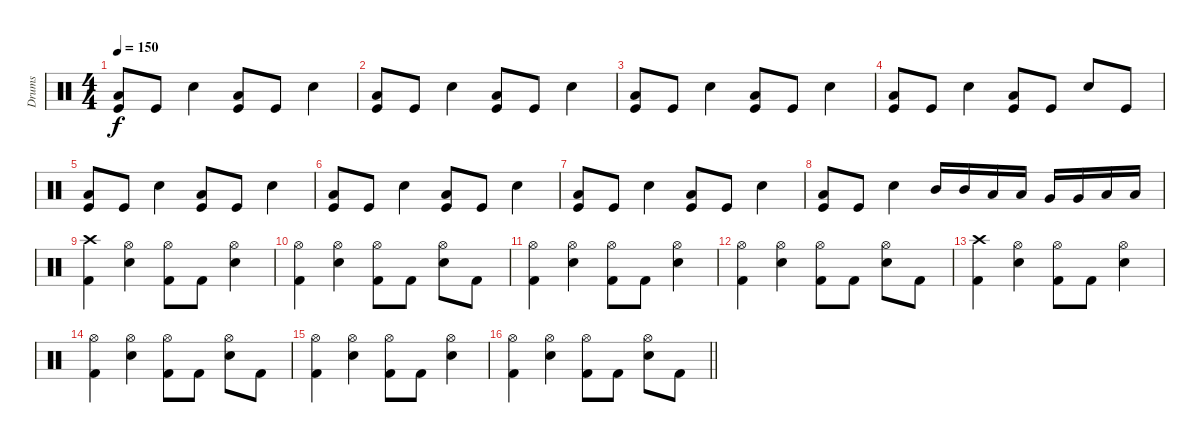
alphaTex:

\track ("Drums" "Drums") {instrument percussion}
\staff {score}
\articulation defaults
\ts (4 4)
\tempo 150
\clef neutral
\ks c
("Low Floor Tom (hit)" "Kick (hit)").8{dy f} "Kick (hit)".8 "Electric Snare (hit)".4 ("Low Floor Tom (hit)" "Kick (hit)").8 "Kick (hit)".8 "Electric Snare (hit)".4 |
("Low Floor Tom (hit)" "Kick (hit)").8 "Kick (hit)".8 "Electric Snare (hit)".4 ("Low Floor Tom (hit)" "Kick (hit)").8 "Kick (hit)".8 "Electric Snare (hit)".4 |
("Low Floor Tom (hit)" "Kick (hit)").8 "Kick (hit)".8 "Electric Snare (hit)".4 ("Low Floor Tom (hit)" "Kick (hit)").8 "Kick (hit)".8 "Electric Snare (hit)".4 |
("Low Floor Tom (hit)" "Kick (hit)").8 "Kick (hit)".8 "Electric Snare (hit)".4 ("Low Floor Tom (hit)" "Kick (hit)").8 "Kick (hit)".8 "Electric Snare (hit)".8 "Kick (hit)".8 |
("Low Floor Tom (hit)" "Kick (hit)").8 "Kick (hit)".8 "Electric Snare (hit)".4 ("Low Floor Tom (hit)" "Kick (hit)").8 "Kick (hit)".8 "Electric Snare (hit)".4 |
("Low Floor Tom (hit)" "Kick (hit)").8 "Kick (hit)".8 "Electric Snare (hit)".4 ("Low Floor Tom (hit)" "Kick (hit)").8 "Kick (hit)".8 "Electric Snare (hit)".4 |
("Low Floor Tom (hit)" "Kick (hit)").8 "Kick (hit)".8 "Electric Snare (hit)".4 ("Low Floor Tom (hit)" "Kick (hit)").8 "Kick (hit)".8 "Electric Snare (hit)".4 |
("Low Floor Tom (hit)" "Kick (hit)").8 "Kick (hit)".8 "Electric Snare (hit)".4 "Mid Tom (hit)".16 "Mid Tom (hit)".16 "Low Tom (hit)".16 "Low Tom (hit)".16 "Very Low Tom (hit)".16 "Very Low Tom (hit)".16 "Low Floor Tom (hit)".16 "Low Floor Tom (hit)".16 |
("Crash high (hit)" "Kick (hit) 2").4 ("Hi-Hat (open)" "Electric Snare (hit)").4 ("Hi-Hat (open)" "Kick (hit) 2").8 "Kick (hit) 2".8 ("Hi-Hat (open)" "Electric Snare (hit)").4 |
("Hi-Hat (open)" "Kick (hit) 2").4 ("Hi-Hat (open)" "Electric Snare (hit)").4 ("Hi-Hat (open)" "Kick (hit) 2").8 "Kick (hit) 2".8 ("Hi-Hat (open)" "Electric Snare (hit)").8 "Kick (hit) 2".8 |
("Hi-Hat (open)" "Kick (hit) 2").4 ("Hi-Hat (open)" "Electric Snare (hit)").4 ("Hi-Hat (open)" "Kick (hit) 2").8 "Kick (hit) 2".8 ("Hi-Hat (open)" "Electric Snare (hit)").4 |
("Hi-Hat (open)" "Kick (hit) 2").4 ("Hi-Hat (open)" "Electric Snare (hit)").4 ("Hi-Hat (open)" "Kick (hit) 2").8 "Kick (hit) 2".8 ("Hi-Hat (open)" "Electric Snare (hit)").8 "Kick (hit) 2".8 |
("Crash high (hit)" "Kick (hit) 2").4 ("Hi-Hat (open)" "Electric Snare (hit)").4 ("Hi-Hat (open)" "Kick (hit) 2").8 "Kick (hit) 2".8 ("Hi-Hat (open)" "Electric Snare (hit)").4 |
("Hi-Hat (open)" "Kick (hit) 2").4 ("Hi-Hat (open)" "Electric Snare (hit)").4 ("Hi-Hat (open)" "Kick (hit) 2").8 "Kick (hit) 2".8 ("Hi-Hat (open)" "Electric Snare (hit)").8 "Kick (hit) 2".8 |
("Hi-Hat (open)" "Kick (hit) 2").4 ("Hi-Hat (open)" "Electric Snare (hit)").4 ("Hi-Hat (open)" "Kick (hit) 2").8 "Kick (hit) 2".8 ("Hi-Hat (open)" "Electric Snare (hit)").4 |
\barLineRight lightlight
("Hi-Hat (open)" "Kick (hit) 2").4 ("Hi-Hat (open)" "Electric Snare (hit)").4 ("Hi-Hat (open)" "Kick (hit) 2").8 "Kick (hit) 2".8 ("Hi-Hat (open)" "Electric Snare (hit)").8 "Kick (hit) 2".8
